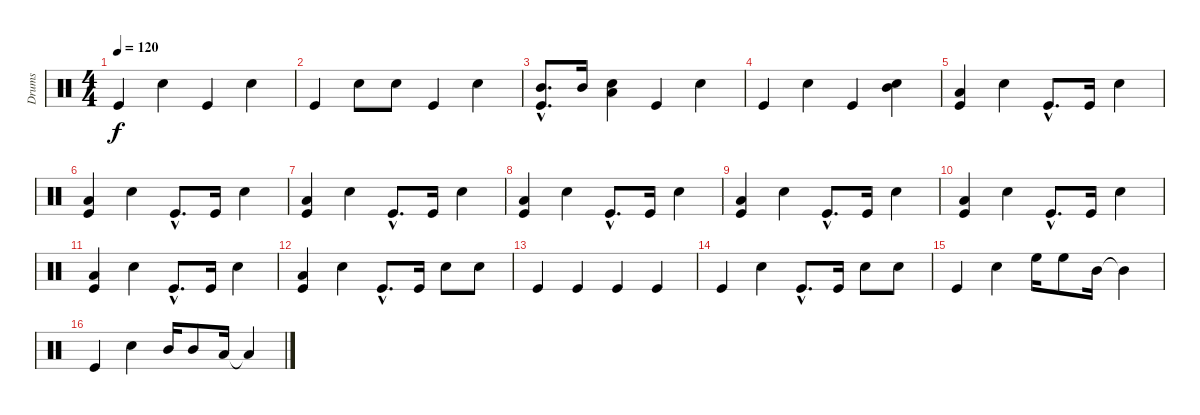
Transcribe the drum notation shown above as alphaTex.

\track ("Drums" "Drums") {instrument percussion}
\staff {score}
\articulation defaults
\ts (4 4)
\tempo 120
\clef neutral
\ks c "Kick (hit)".4{dy f} "Snare (hit) 2".4 "Kick (hit)".4 "Snare (hit) 2".4
|
"Kick (hit)".4 "Snare (hit) 2".8 "Snare (hit) 2".8 "Kick (hit)".4 "Snare (hit) 2".4 |
("Kick (hit)"{hac} "Mid Tom (hit)"{hac}).8{d} "Mid Tom (hit)".16 ("Snare (hit) 2" "Low Tom (hit)").4 "Kick (hit)".4 "Snare (hit) 2".4 |
"Kick (hit)".4 "Snare (hit) 2".4 "Kick (hit)".4 ("Snare (hit) 2" "Mid Tom (hit)").4 |
("Kick (hit)" "Low Tom (hit)").4 "Snare (hit) 2".4 "Kick (hit)"{hac}.8{d} "Kick (hit)".16 "Snare (hit) 2".4 |
("Kick (hit)" "Low Tom (hit)").4 "Snare (hit) 2".4 "Kick (hit)"{hac}.8{d} "Kick (hit)".16 "Snare (hit) 2".4 |
("Kick (hit)" "Low Tom (hit)").4 "Snare (hit) 2".4 "Kick (hit)"{hac}.8{d} "Kick (hit)".16 "Snare (hit) 2".4 |
("Kick (hit)" "Low Tom (hit)").4 "Snare (hit) 2".4 "Kick (hit)"{hac}.8{d} "Kick (hit)".16 "Snare (hit) 2".4 |
("Kick (hit)" "Low Tom (hit)").4 "Snare (hit) 2".4 "Kick (hit)"{hac}.8{d} "Kick (hit)".16 "Snare (hit) 2".4 |
("Kick (hit)" "Low Tom (hit)").4 "Snare (hit) 2".4 "Kick (hit)"{hac}.8{d} "Kick (hit)".16 "Snare (hit) 2".4 |
("Kick (hit)" "Low Tom (hit)").4 "Snare (hit) 2".4 "Kick (hit)"{hac}.8{d} "Kick (hit)".16 "Snare (hit) 2".4 |
("Kick (hit)" "Low Tom (hit)").4 "Snare (hit) 2".4 "Kick (hit)"{hac}.8{d} "Kick (hit)".16 "Snare (hit) 2".8 "Snare (hit) 2".8 |
"Kick (hit)".4 "Kick (hit)".4 "Kick (hit)".4 "Kick (hit)".4 |
"Kick (hit)".4 "Snare (hit) 2".4 "Kick (hit)"{hac}.8{d} "Kick (hit)".16 "Snare (hit) 2".8 "Snare (hit) 2".8 |
"Kick (hit)".4 "Snare (hit) 2".4 "High Floor Tom (hit)".16 "High Floor Tom (hit)".8 "Mid Tom (hit)".16 "Mid Tom (hit)"{t}.4 |
"Kick (hit)".4 "Snare (hit) 2".4 "Mid Tom (hit)".16 "Mid Tom (hit)".8 "Low Tom (hit)".16 "Low Tom (hit)"{t}.4
